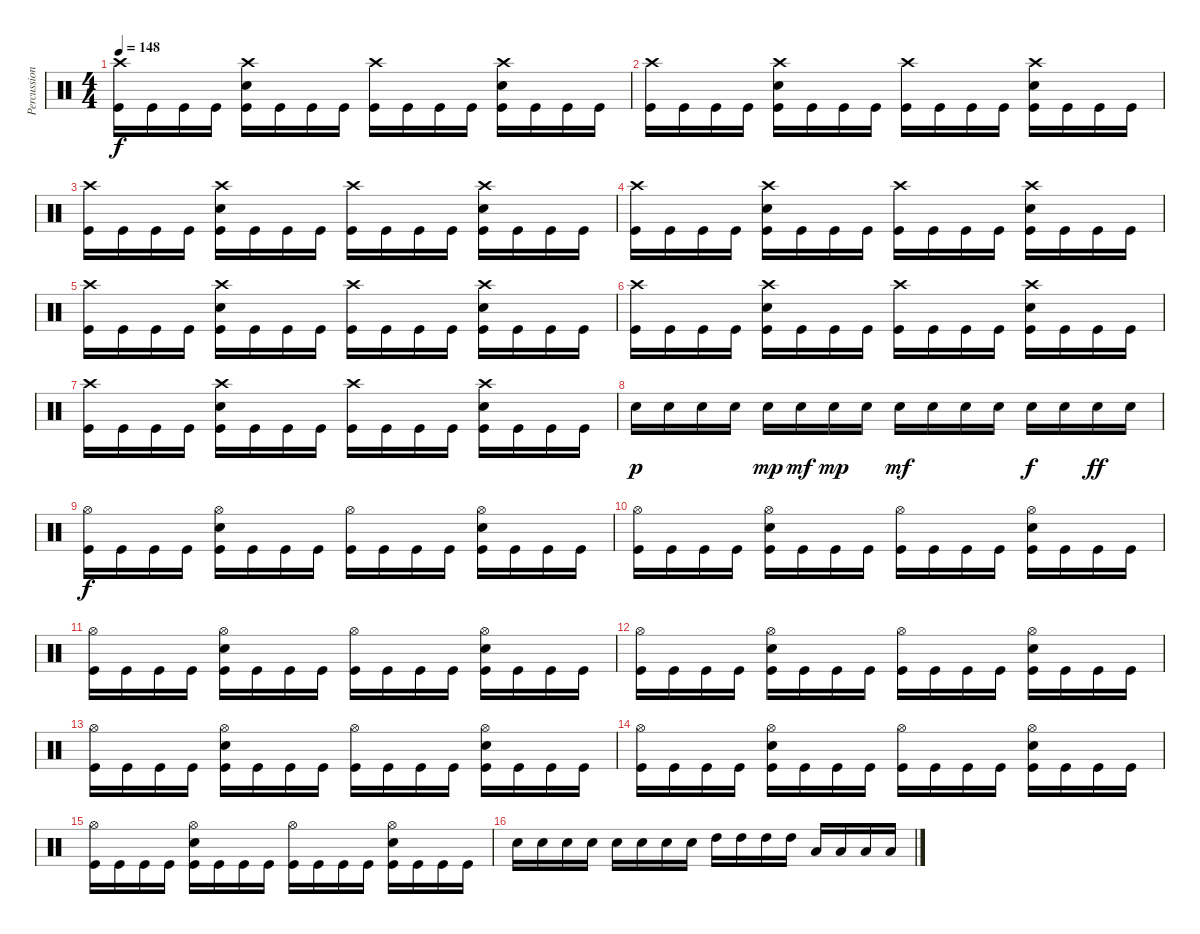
\track ("Percussion" "Percussion") {instrument percussion}
\staff {score}
\articulation defaults
\ts (4 4)
\tempo 148
\clef neutral
\ks c
("Crash high (hit)" "Kick (hit)").16{dy f} "Kick (hit)".16 "Kick (hit)".16 "Kick (hit)".16 ("Crash high (hit)" "Electric Snare (hit)" "Kick (hit)").16 "Kick (hit)".16 "Kick (hit)".16 "Kick (hit)".16 ("Crash high (hit)" "Kick (hit)").16 "Kick (hit)".16 "Kick (hit)".16 "Kick (hit)".16 ("Crash high (hit)" "Electric Snare (hit)" "Kick (hit)").16 "Kick (hit)".16 "Kick (hit)".16 "Kick (hit)".16 |
("Crash high (hit)" "Kick (hit)").16 "Kick (hit)".16 "Kick (hit)".16 "Kick (hit)".16 ("Crash high (hit)" "Electric Snare (hit)" "Kick (hit)").16 "Kick (hit)".16 "Kick (hit)".16 "Kick (hit)".16 ("Crash high (hit)" "Kick (hit)").16 "Kick (hit)".16 "Kick (hit)".16 "Kick (hit)".16 ("Crash high (hit)" "Electric Snare (hit)" "Kick (hit)").16 "Kick (hit)".16 "Kick (hit)".16 "Kick (hit)".16 |
("Crash high (hit)" "Kick (hit)").16 "Kick (hit)".16 "Kick (hit)".16 "Kick (hit)".16 ("Crash high (hit)" "Electric Snare (hit)" "Kick (hit)").16 "Kick (hit)".16 "Kick (hit)".16 "Kick (hit)".16 ("Crash high (hit)" "Kick (hit)").16 "Kick (hit)".16 "Kick (hit)".16 "Kick (hit)".16 ("Crash high (hit)" "Electric Snare (hit)" "Kick (hit)").16 "Kick (hit)".16 "Kick (hit)".16 "Kick (hit)".16 |
("Crash high (hit)" "Kick (hit)").16 "Kick (hit)".16 "Kick (hit)".16 "Kick (hit)".16 ("Crash high (hit)" "Electric Snare (hit)" "Kick (hit)").16 "Kick (hit)".16 "Kick (hit)".16 "Kick (hit)".16 ("Crash high (hit)" "Kick (hit)").16 "Kick (hit)".16 "Kick (hit)".16 "Kick (hit)".16 ("Crash high (hit)" "Electric Snare (hit)" "Kick (hit)").16 "Kick (hit)".16 "Kick (hit)".16 "Kick (hit)".16 |
("Crash high (hit)" "Kick (hit)").16 "Kick (hit)".16 "Kick (hit)".16 "Kick (hit)".16 ("Crash high (hit)" "Electric Snare (hit)" "Kick (hit)").16 "Kick (hit)".16 "Kick (hit)".16 "Kick (hit)".16 ("Crash high (hit)" "Kick (hit)").16 "Kick (hit)".16 "Kick (hit)".16 "Kick (hit)".16 ("Crash high (hit)" "Electric Snare (hit)" "Kick (hit)").16 "Kick (hit)".16 "Kick (hit)".16 "Kick (hit)".16 |
("Crash high (hit)" "Kick (hit)").16 "Kick (hit)".16 "Kick (hit)".16 "Kick (hit)".16 ("Crash high (hit)" "Electric Snare (hit)" "Kick (hit)").16 "Kick (hit)".16 "Kick (hit)".16 "Kick (hit)".16 ("Crash high (hit)" "Kick (hit)").16 "Kick (hit)".16 "Kick (hit)".16 "Kick (hit)".16 ("Crash high (hit)" "Electric Snare (hit)" "Kick (hit)").16 "Kick (hit)".16 "Kick (hit)".16 "Kick (hit)".16 |
("Crash high (hit)" "Kick (hit)").16 "Kick (hit)".16 "Kick (hit)".16 "Kick (hit)".16 ("Crash high (hit)" "Electric Snare (hit)" "Kick (hit)").16 "Kick (hit)".16 "Kick (hit)".16 "Kick (hit)".16 ("Crash high (hit)" "Kick (hit)").16 "Kick (hit)".16 "Kick (hit)".16 "Kick (hit)".16 ("Crash high (hit)" "Electric Snare (hit)" "Kick (hit)").16 "Kick (hit)".16 "Kick (hit)".16 "Kick (hit)".16 |
"Electric Snare (hit)".16{dy p} "Electric Snare (hit)".16 "Electric Snare (hit)".16 "Electric Snare (hit)".16 "Electric Snare (hit)".16{dy mp} "Electric Snare (hit)".16{dy mf} "Electric Snare (hit)".16{dy mp} "Electric Snare (hit)".16 "Electric Snare (hit)".16{dy mf} "Electric Snare (hit)".16 "Electric Snare (hit)".16 "Electric Snare (hit)".16 "Electric Snare (hit)".16{dy f} "Electric Snare (hit)".16 "Electric Snare (hit)".16{dy ff} "Electric Snare (hit)".16 |
("Hi-Hat (open)" "Kick (hit)").16{dy f} "Kick (hit)".16 "Kick (hit)".16 "Kick (hit)".16 ("Hi-Hat (open)" "Electric Snare (hit)" "Kick (hit)").16 "Kick (hit)".16 "Kick (hit)".16 "Kick (hit)".16 ("Hi-Hat (open)" "Kick (hit)").16 "Kick (hit)".16 "Kick (hit)".16 "Kick (hit)".16 ("Hi-Hat (open)" "Electric Snare (hit)" "Kick (hit)").16 "Kick (hit)".16 "Kick (hit)".16 "Kick (hit)".16 |
("Hi-Hat (open)" "Kick (hit)").16 "Kick (hit)".16 "Kick (hit)".16 "Kick (hit)".16 ("Hi-Hat (open)" "Electric Snare (hit)" "Kick (hit)").16 "Kick (hit)".16 "Kick (hit)".16 "Kick (hit)".16 ("Hi-Hat (open)" "Kick (hit)").16 "Kick (hit)".16 "Kick (hit)".16 "Kick (hit)".16 ("Hi-Hat (open)" "Electric Snare (hit)" "Kick (hit)").16 "Kick (hit)".16 "Kick (hit)".16 "Kick (hit)".16 |
("Hi-Hat (open)" "Kick (hit)").16 "Kick (hit)".16 "Kick (hit)".16 "Kick (hit)".16 ("Hi-Hat (open)" "Electric Snare (hit)" "Kick (hit)").16 "Kick (hit)".16 "Kick (hit)".16 "Kick (hit)".16 ("Hi-Hat (open)" "Kick (hit)").16 "Kick (hit)".16 "Kick (hit)".16 "Kick (hit)".16 ("Hi-Hat (open)" "Electric Snare (hit)" "Kick (hit)").16 "Kick (hit)".16 "Kick (hit)".16 "Kick (hit)".16 |
("Hi-Hat (open)" "Kick (hit)").16 "Kick (hit)".16 "Kick (hit)".16 "Kick (hit)".16 ("Hi-Hat (open)" "Electric Snare (hit)" "Kick (hit)").16 "Kick (hit)".16 "Kick (hit)".16 "Kick (hit)".16 ("Hi-Hat (open)" "Kick (hit)").16 "Kick (hit)".16 "Kick (hit)".16 "Kick (hit)".16 ("Hi-Hat (open)" "Electric Snare (hit)" "Kick (hit)").16 "Kick (hit)".16 "Kick (hit)".16 "Kick (hit)".16 |
("Hi-Hat (open)" "Kick (hit)").16 "Kick (hit)".16 "Kick (hit)".16 "Kick (hit)".16 ("Hi-Hat (open)" "Electric Snare (hit)" "Kick (hit)").16 "Kick (hit)".16 "Kick (hit)".16 "Kick (hit)".16 ("Hi-Hat (open)" "Kick (hit)").16 "Kick (hit)".16 "Kick (hit)".16 "Kick (hit)".16 ("Hi-Hat (open)" "Electric Snare (hit)" "Kick (hit)").16 "Kick (hit)".16 "Kick (hit)".16 "Kick (hit)".16 |
("Hi-Hat (open)" "Kick (hit)").16 "Kick (hit)".16 "Kick (hit)".16 "Kick (hit)".16 ("Hi-Hat (open)" "Electric Snare (hit)" "Kick (hit)").16 "Kick (hit)".16 "Kick (hit)".16 "Kick (hit)".16 ("Hi-Hat (open)" "Kick (hit)").16 "Kick (hit)".16 "Kick (hit)".16 "Kick (hit)".16 ("Hi-Hat (open)" "Electric Snare (hit)" "Kick (hit)").16 "Kick (hit)".16 "Kick (hit)".16 "Kick (hit)".16 |
("Hi-Hat (open)" "Kick (hit)").16 "Kick (hit)".16 "Kick (hit)".16 "Kick (hit)".16 ("Hi-Hat (open)" "Electric Snare (hit)" "Kick (hit)").16 "Kick (hit)".16 "Kick (hit)".16 "Kick (hit)".16 ("Hi-Hat (open)" "Kick (hit)").16 "Kick (hit)".16 "Kick (hit)".16 "Kick (hit)".16 ("Hi-Hat (open)" "Electric Snare (hit)" "Kick (hit)").16 "Kick (hit)".16 "Kick (hit)".16 "Kick (hit)".16 |
"Electric Snare (hit)".16 "Electric Snare (hit)".16 "Electric Snare (hit)".16 "Electric Snare (hit)".16 "Electric Snare (hit)".16 "Electric Snare (hit)".16 "Electric Snare (hit)".16 "Electric Snare (hit)".16 "High Tom (hit)".16 "High Tom (hit)".16 "High Tom (hit)".16 "High Tom (hit)".16 "Low Floor Tom (hit)".16 "Low Floor Tom (hit)".16 "Low Floor Tom (hit)".16 "Low Floor Tom (hit)".16
